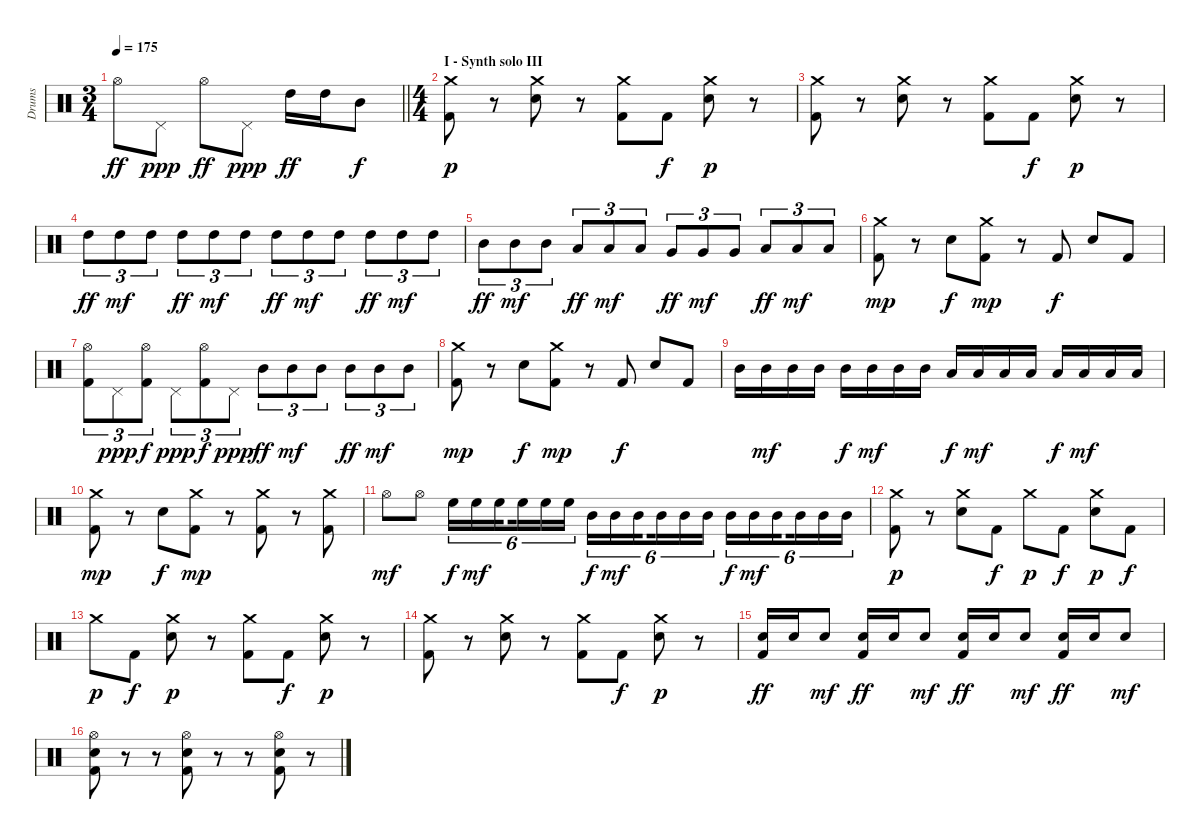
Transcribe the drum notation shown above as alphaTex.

\track ("Drums" "Drums") {instrument percussion}
\staff {score}
\articulation defaults
\ts (3 4)
\tempo 175
\clef neutral
\barLineRight lightlight
\ks c "Hi-Hat (open)".8{dy ff} "Pedal Hi-Hat (hit)".8{dy ppp} "Hi-Hat (open)".8{dy ff} "Pedal Hi-Hat (hit)".8{dy ppp} "High Tom (hit)".16{dy ff} "High Tom (hit)".16 "Mid Tom (hit)".8{dy f}
|
\ts (4 4)
\section ("" "I - Synth solo III")
("Crash medium (hit)" "Kick (hit) 2").8{dy p} r.8 ("Crash medium (hit)" "Electric Snare (hit)").8 r.8 ("Crash medium (hit)" "Kick (hit) 2").8 "Kick (hit) 2".8{dy f} ("Crash medium (hit)" "Electric Snare (hit)").8{dy p} r.8 |
("Crash medium (hit)" "Kick (hit) 2").8 r.8 ("Crash medium (hit)" "Electric Snare (hit)").8 r.8 ("Crash medium (hit)" "Kick (hit) 2").8 "Kick (hit) 2".8{dy f} ("Crash medium (hit)" "Electric Snare (hit)").8{dy p} r.8 |
"High Tom (hit)".8{tu (3 2) dy ff} "High Tom (hit)".8{tu (3 2) dy mf} "High Tom (hit)".8{tu (3 2)} "High Tom (hit)".8{tu (3 2) dy ff} "High Tom (hit)".8{tu (3 2) dy mf} "High Tom (hit)".8{tu (3 2)} "High Tom (hit)".8{tu (3 2) dy ff} "High Tom (hit)".8{tu (3 2) dy mf} "High Tom (hit)".8{tu (3 2)} "High Tom (hit)".8{tu (3 2) dy ff} "High Tom (hit)".8{tu (3 2) dy mf} "High Tom (hit)".8{tu (3 2)} |
"Mid Tom (hit)".8{tu (3 2) dy ff} "Mid Tom (hit)".8{tu (3 2) dy mf} "Mid Tom (hit)".8{tu (3 2)} "Low Tom (hit)".8{tu (3 2) dy ff} "Low Tom (hit)".8{tu (3 2) dy mf} "Low Tom (hit)".8{tu (3 2)} "Very Low Tom (hit)".8{tu (3 2) dy ff} "Very Low Tom (hit)".8{tu (3 2) dy mf} "Very Low Tom (hit)".8{tu (3 2)} "Low Floor Tom (hit)".8{tu (3 2) dy ff} "Low Floor Tom (hit)".8{tu (3 2) dy mf} "Low Floor Tom (hit)".8{tu (3 2)} |
("Crash medium (hit)" "Kick (hit) 2").8{dy mp} r.8 "Electric Snare (hit)".8{dy f} ("Crash medium (hit)" "Kick (hit) 2").8{dy mp} r.8 "Kick (hit) 2".8{dy f} "Electric Snare (hit)".8 "Kick (hit) 2".8 |
("Hi-Hat (open)" "Kick (hit) 2").8{tu (3 2)} "Pedal Hi-Hat (hit)".8{tu (3 2) dy ppp} ("Hi-Hat (open)" "Kick (hit) 2").8{tu (3 2) dy f} "Pedal Hi-Hat (hit)".8{tu (3 2) dy ppp} ("Hi-Hat (open)" "Kick (hit) 2").8{tu (3 2) dy f} "Pedal Hi-Hat (hit)".8{tu (3 2) dy ppp} "Mid Tom (hit)".8{tu (3 2) dy ff} "Mid Tom (hit)".8{tu (3 2) dy mf} "Mid Tom (hit)".8{tu (3 2)} "Mid Tom (hit)".8{tu (3 2) dy ff} "Mid Tom (hit)".8{tu (3 2) dy mf} "Mid Tom (hit)".8{tu (3 2)} |
("Crash medium (hit)" "Kick (hit) 2").8{dy mp} r.8 "Electric Snare (hit)".8{dy f} ("Crash medium (hit)" "Kick (hit) 2").8{dy mp} r.8 "Kick (hit) 2".8{dy f} "Electric Snare (hit)".8 "Kick (hit) 2".8 |
"Mid Tom (hit)".16 "Mid Tom (hit)".16{dy mf} "Mid Tom (hit)".16 "Mid Tom (hit)".16 "Mid Tom (hit)".16{dy f} "Mid Tom (hit)".16{dy mf} "Mid Tom (hit)".16 "Mid Tom (hit)".16 "Low Tom (hit)".16{dy f} "Low Tom (hit)".16{dy mf} "Low Tom (hit)".16 "Low Tom (hit)".16 "Low Tom (hit)".16{dy f} "Low Tom (hit)".16{dy mf} "Low Tom (hit)".16 "Low Tom (hit)".16 |
("Crash medium (hit)" "Kick (hit) 2").8{dy mp} r.8 "Electric Snare (hit)".8{dy f} ("Crash medium (hit)" "Kick (hit) 2").8{dy mp} r.8 ("Crash medium (hit)" "Kick (hit) 2").8 r.8 ("Crash medium (hit)" "Kick (hit) 2").8 |
"Hi-Hat (open)".8{dy mf} "Hi-Hat (open)".8 "High Floor Tom (hit)".16{tu (6 4) dy f} "High Floor Tom (hit)".16{tu (6 4) dy mf} "High Floor Tom (hit)".16{tu (6 4) beam splitsecondary} "High Floor Tom (hit)".16{tu (6 4)} "High Floor Tom (hit)".16{tu (6 4)} "High Floor Tom (hit)".16{tu (6 4)} "Mid Tom (hit)".16{tu (6 4) dy f} "Mid Tom (hit)".16{tu (6 4) dy mf} "Mid Tom (hit)".16{tu (6 4) beam splitsecondary} "Mid Tom (hit)".16{tu (6 4)} "Mid Tom (hit)".16{tu (6 4)} "Mid Tom (hit)".16{tu (6 4)} "Mid Tom (hit)".16{tu (6 4) dy f} "Mid Tom (hit)".16{tu (6 4) dy mf} "Mid Tom (hit)".16{tu (6 4) beam splitsecondary} "Mid Tom (hit)".16{tu (6 4)} "Mid Tom (hit)".16{tu (6 4)} "Mid Tom (hit)".16{tu (6 4)} |
("Crash medium (hit)" "Kick (hit) 2").8{dy p} r.8 ("Crash medium (hit)" "Electric Snare (hit)").8 "Kick (hit) 2".8{dy f} "Crash medium (hit)".8{dy p} "Kick (hit) 2".8{dy f} ("Crash medium (hit)" "Electric Snare (hit)").8{dy p} "Kick (hit) 2".8{dy f} |
"Crash medium (hit)".8{dy p} "Kick (hit) 2".8{dy f} ("Crash medium (hit)" "Electric Snare (hit)").8{dy p} r.8 ("Crash medium (hit)" "Kick (hit) 2").8 "Kick (hit) 2".8{dy f} ("Crash medium (hit)" "Electric Snare (hit)").8{dy p} r.8 |
("Crash medium (hit)" "Kick (hit) 2").8 r.8 ("Crash medium (hit)" "Electric Snare (hit)").8 r.8 ("Crash medium (hit)" "Kick (hit) 2").8 "Kick (hit) 2".8{dy f} ("Crash medium (hit)" "Electric Snare (hit)").8{dy p} r.8 |
("Electric Snare (hit)" "Kick (hit) 2").16{dy ff} "Electric Snare (hit)".16 "Electric Snare (hit)".8{dy mf} ("Electric Snare (hit)" "Kick (hit) 2").16{dy ff} "Electric Snare (hit)".16 "Electric Snare (hit)".8{dy mf} ("Electric Snare (hit)" "Kick (hit) 2").16{dy ff} "Electric Snare (hit)".16 "Electric Snare (hit)".8{dy mf} ("Electric Snare (hit)" "Kick (hit) 2").16{dy ff} "Electric Snare (hit)".16 "Electric Snare (hit)".8{dy mf} |
("Hi-Hat (open)" "Electric Snare (hit)" "Kick (hit) 2").8 r.8 r.8 ("Hi-Hat (open)" "Electric Snare (hit)" "Kick (hit) 2").8 r.8 r.8 ("Hi-Hat (open)" "Electric Snare (hit)" "Kick (hit) 2").8 r.8
